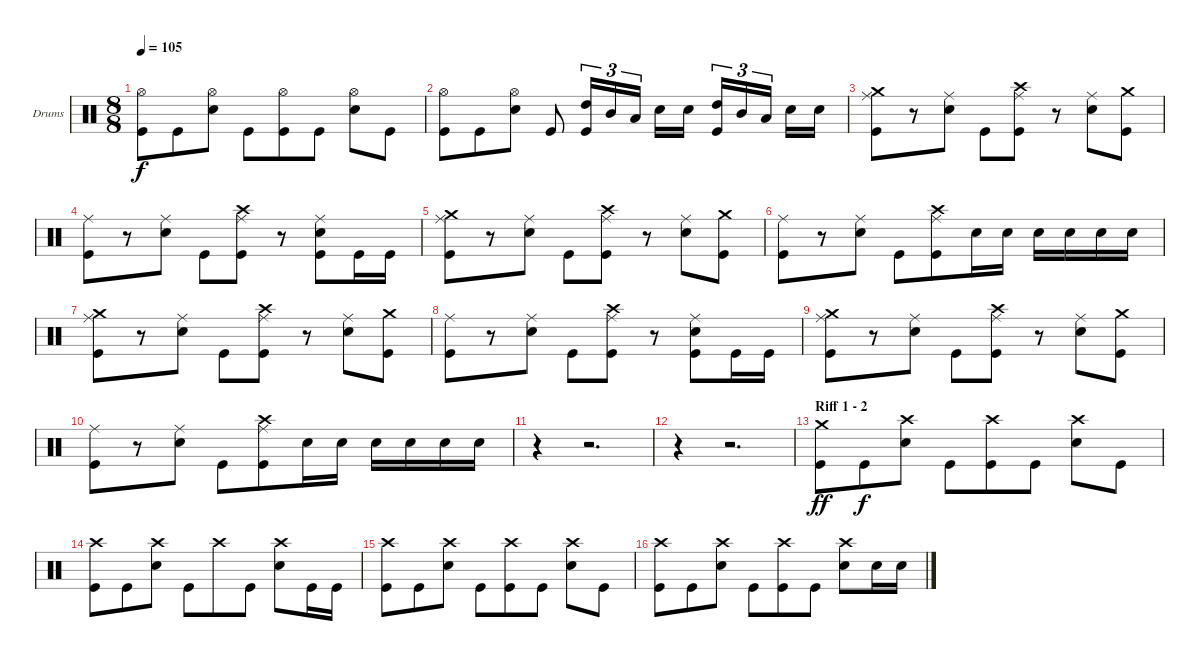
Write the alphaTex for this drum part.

\bracketExtendMode groupsimilarinstruments
\firstSystemTrackNameOrientation horizontal
\otherSystemsTrackNameOrientation horizontal
\track ("Drumkit" "Drums") {instrument percussion}
\staff {score}
\articulation defaults
\ts (8 8)
\tempo 105
\clef neutral
\ks c
("Hi-Hat (open)" "Kick (hit)").8{dy f} "Kick (hit)".8 ("Hi-Hat (open)" "Snare (hit) 2").8 "Kick (hit)".8 ("Hi-Hat (open)" "Kick (hit)").8 "Kick (hit)".8 ("Hi-Hat (open)" "Snare (hit) 2").8 "Kick (hit)".8 |
("Hi-Hat (open)" "Kick (hit)").8 "Kick (hit)".8 ("Hi-Hat (open)" "Snare (hit) 2").8 "Kick (hit)".8 ("High Tom (hit)" "Kick (hit)").16{tu (3 2)} "Mid Tom (hit)".16{tu (3 2)} "Low Tom (hit)".16{tu (3 2)} "Snare (hit) 2".16 "Snare (hit) 2".16 ("High Tom (hit)" "Kick (hit)").16{tu (3 2)} "Mid Tom (hit)".16{tu (3 2)} "Low Tom (hit)".16{tu (3 2)} "Snare (hit) 2".16 "Snare (hit) 2".16 |
("Crash medium (hit)" "Ride (middle)" "Kick (hit)").8 r.8 ("Ride (middle)" "Snare (hit) 2").8 "Kick (hit)".8 ("Crash high (hit)" "Ride (middle)" "Kick (hit)").8 r.8 ("Ride (middle)" "Snare (hit) 2").8 ("Crash medium (hit)" "Kick (hit)").8 |
("Ride (middle)" "Kick (hit)").8 r.8 ("Ride (middle)" "Snare (hit) 2").8 "Kick (hit)".8 ("Crash high (hit)" "Ride (middle)" "Kick (hit)").8 r.8 ("Ride (middle)" "Snare (hit) 2" "Kick (hit)").8 "Kick (hit)".16 "Kick (hit)".16 |
("Crash medium (hit)" "Ride (middle)" "Kick (hit)").8 r.8 ("Ride (middle)" "Snare (hit) 2").8 "Kick (hit)".8 ("Crash high (hit)" "Ride (middle)" "Kick (hit)").8 r.8 ("Ride (middle)" "Snare (hit) 2").8 ("Crash medium (hit)" "Kick (hit)").8 |
("Ride (middle)" "Kick (hit)").8 r.8 ("Ride (middle)" "Snare (hit) 2").8 "Kick (hit)".8 ("Crash high (hit)" "Ride (middle)" "Kick (hit)").8 "Snare (hit) 2".16 "Snare (hit) 2".16 "Snare (hit) 2".16 "Snare (hit) 2".16 "Snare (hit) 2".16 "Snare (hit) 2".16 |
("Crash medium (hit)" "Ride (middle)" "Kick (hit)").8 r.8 ("Ride (middle)" "Snare (hit) 2").8 "Kick (hit)".8 ("Crash high (hit)" "Ride (middle)" "Kick (hit)").8 r.8 ("Ride (middle)" "Snare (hit) 2").8 ("Crash medium (hit)" "Kick (hit)").8 |
("Ride (middle)" "Kick (hit)").8 r.8 ("Ride (middle)" "Snare (hit) 2").8 "Kick (hit)".8 ("Crash high (hit)" "Ride (middle)" "Kick (hit)").8 r.8 ("Ride (middle)" "Snare (hit) 2" "Kick (hit)").8 "Kick (hit)".16 "Kick (hit)".16 |
("Crash medium (hit)" "Ride (middle)" "Kick (hit)").8 r.8 ("Ride (middle)" "Snare (hit) 2").8 "Kick (hit)".8 ("Crash high (hit)" "Ride (middle)" "Kick (hit)").8 r.8 ("Ride (middle)" "Snare (hit) 2").8 ("Crash medium (hit)" "Kick (hit)").8 |
("Ride (middle)" "Kick (hit)").8 r.8 ("Ride (middle)" "Snare (hit) 2").8 "Kick (hit)".8 ("Crash high (hit)" "Ride (middle)" "Kick (hit)").8 "Snare (hit) 2".16 "Snare (hit) 2".16 "Snare (hit) 2".16 "Snare (hit) 2".16 "Snare (hit) 2".16 "Snare (hit) 2".16 |
r.4 r.2{d} |
r.4 r.2{d} |
\section ("" "Riff 1 - 2")
("Crash medium (hit)" "Kick (hit)").8{dy ff} "Kick (hit)".8{dy f} ("Crash high (hit)" "Snare (hit) 2").8 "Kick (hit)".8 ("Crash high (hit)" "Kick (hit)").8 "Kick (hit)".8 ("Crash high (hit)" "Snare (hit) 2").8 "Kick (hit)".8 |
("Crash high (hit)" "Kick (hit)").8 "Kick (hit)".8 ("Crash high (hit)" "Snare (hit) 2").8 "Kick (hit)".8 "Crash high (hit)".8 "Kick (hit)".8 ("Crash high (hit)" "Snare (hit) 2").8 "Kick (hit)".16 "Kick (hit)".16 |
("Crash high (hit)" "Kick (hit)").8 "Kick (hit)".8 ("Crash high (hit)" "Snare (hit) 2").8 "Kick (hit)".8 ("Crash high (hit)" "Kick (hit)").8 "Kick (hit)".8 ("Crash high (hit)" "Snare (hit) 2").8 "Kick (hit)".8 |
("Crash high (hit)" "Kick (hit)").8 "Kick (hit)".8 ("Crash high (hit)" "Snare (hit) 2").8 "Kick (hit)".8 ("Crash high (hit)" "Kick (hit)").8 "Kick (hit)".8 ("Crash high (hit)" "Snare (hit) 2").8 "Snare (hit) 2".16 "Snare (hit) 2".16
